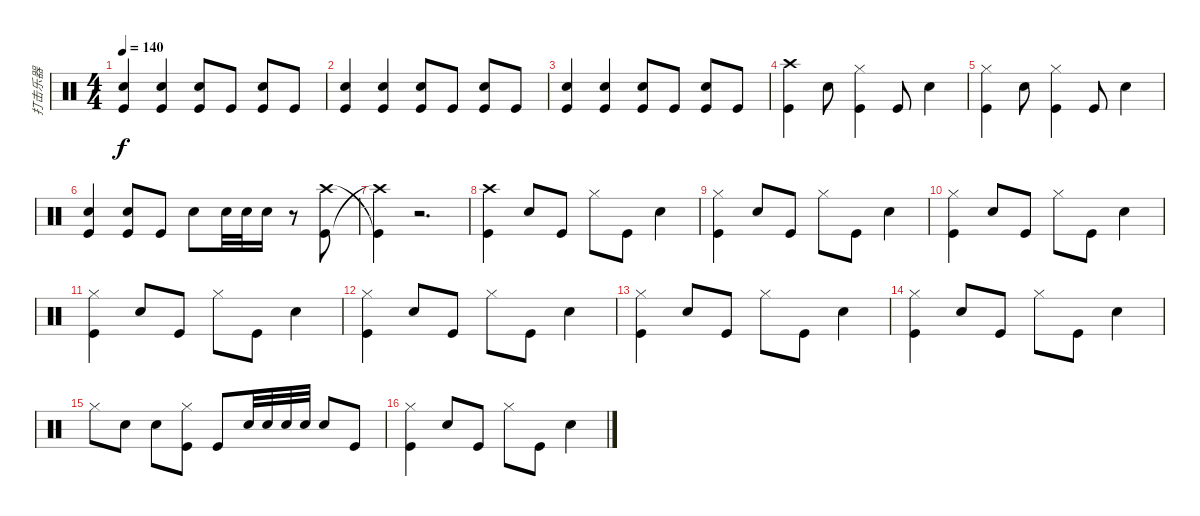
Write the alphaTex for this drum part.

\track ("打击乐器" "打击乐器") {instrument percussion}
\staff {score}
\articulation defaults
\ts (4 4)
\tempo 140
\clef neutral
\ks c
("Kick (hit)" "Snare (hit) 2").4{dy f} ("Kick (hit)" "Snare (hit) 2").4 ("Kick (hit)" "Snare (hit) 2").8 "Kick (hit)".8 ("Snare (hit) 2" "Kick (hit)").8 "Kick (hit)".8 |
("Kick (hit)" "Snare (hit) 2").4 ("Kick (hit)" "Snare (hit) 2").4 ("Kick (hit)" "Snare (hit) 2").8 "Kick (hit)".8 ("Snare (hit) 2" "Kick (hit)").8 "Kick (hit)".8 |
("Kick (hit)" "Snare (hit) 2").4 ("Kick (hit)" "Snare (hit) 2").4 ("Kick (hit)" "Snare (hit) 2").8 "Kick (hit)".8 ("Snare (hit) 2" "Kick (hit)").8 "Kick (hit)".8 |
("Crash high (hit)" "Kick (hit)").4 "Snare (hit) 2".8 ("Hi-Hat (closed)" "Kick (hit)").4 "Kick (hit)".8 "Snare (hit) 2".4 |
("Hi-Hat (closed)" "Kick (hit)").4 "Snare (hit) 2".8 ("Hi-Hat (closed)" "Kick (hit)").4 "Kick (hit)".8 "Snare (hit) 2".4 |
("Kick (hit)" "Snare (hit) 2").4 ("Kick (hit)" "Snare (hit) 2").8 "Kick (hit)".8 "Snare (hit) 2".8 "Snare (hit) 2".32 "Snare (hit) 2".32 "Snare (hit) 2".16 r.8 ("Kick (hit)" "Crash high (hit)").8 |
("Crash high (hit)"{t} "Kick (hit)"{t}).4 r.2{d} |
("Crash high (hit)" "Kick (hit)").4 "Snare (hit) 2".8 "Kick (hit)".8 "Hi-Hat (closed)".8 "Kick (hit)".8 "Snare (hit) 2".4 |
("Hi-Hat (closed)" "Kick (hit)").4 "Snare (hit) 2".8 "Kick (hit)".8 "Hi-Hat (closed)".8 "Kick (hit)".8 "Snare (hit) 2".4 |
("Hi-Hat (closed)" "Kick (hit)").4 "Snare (hit) 2".8 "Kick (hit)".8 "Hi-Hat (closed)".8 "Kick (hit)".8 "Snare (hit) 2".4 |
("Hi-Hat (closed)" "Kick (hit)").4 "Snare (hit) 2".8 "Kick (hit)".8 "Hi-Hat (closed)".8 "Kick (hit)".8 "Snare (hit) 2".4 |
("Hi-Hat (closed)" "Kick (hit)").4 "Snare (hit) 2".8 "Kick (hit)".8 "Hi-Hat (closed)".8 "Kick (hit)".8 "Snare (hit) 2".4 |
("Hi-Hat (closed)" "Kick (hit)").4 "Snare (hit) 2".8 "Kick (hit)".8 "Hi-Hat (closed)".8 "Kick (hit)".8 "Snare (hit) 2".4 |
("Hi-Hat (closed)" "Kick (hit)").4 "Snare (hit) 2".8 "Kick (hit)".8 "Hi-Hat (closed)".8 "Kick (hit)".8 "Snare (hit) 2".4 |
"Hi-Hat (closed)".8 "Snare (hit) 2".8 "Snare (hit) 2".8 ("Hi-Hat (closed)" "Kick (hit)").8 "Kick (hit)".8 "Snare (hit) 2".32 "Snare (hit) 2".32 "Snare (hit) 2".32 "Snare (hit) 2".32 "Snare (hit) 2".8 "Kick (hit)".8 |
("Hi-Hat (closed)" "Kick (hit)").4 "Snare (hit) 2".8 "Kick (hit)".8 "Hi-Hat (closed)".8 "Kick (hit)".8 "Snare (hit) 2".4
